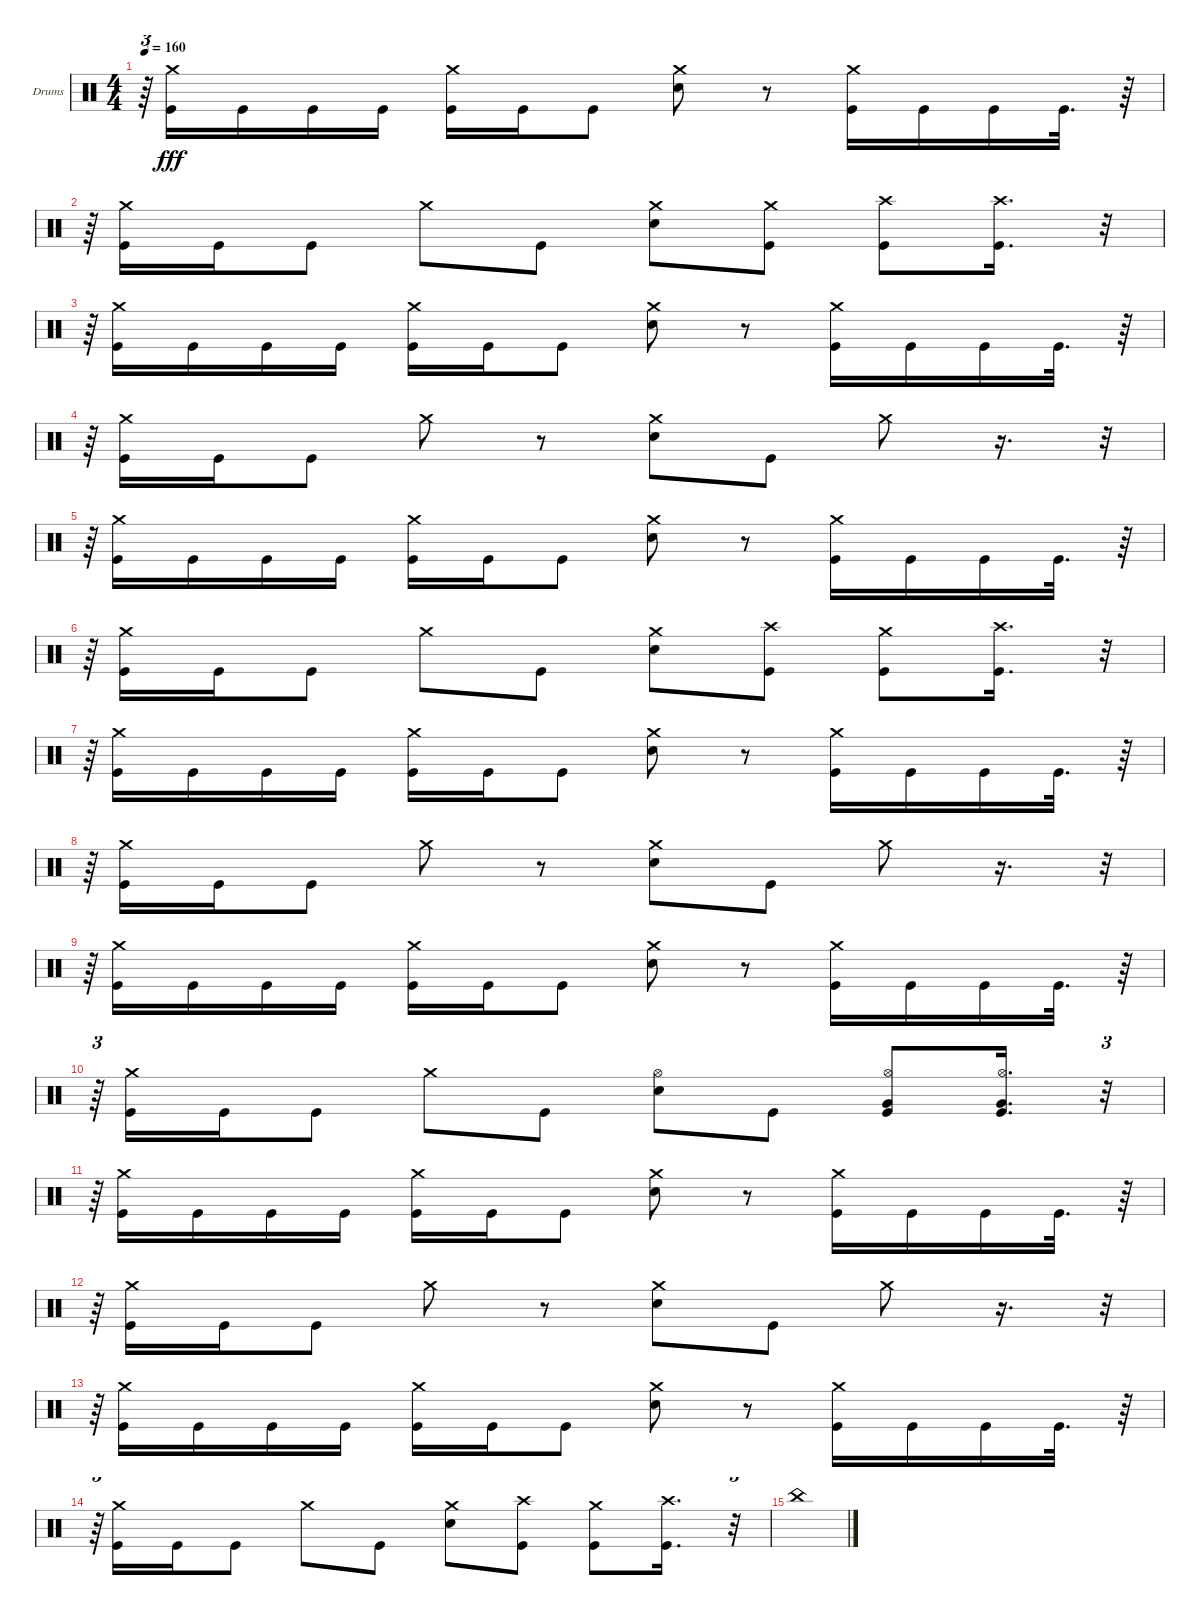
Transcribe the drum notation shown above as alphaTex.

\bracketExtendMode groupsimilarinstruments
\firstSystemTrackNameOrientation horizontal
\otherSystemsTrackNameOrientation horizontal
\track ("Drums" "Drums") {instrument percussion}
\staff {score}
\articulation defaults
\ts (4 4)
\tempo 160
\clef neutral
\ks c
r.64{tu (3 2) dy fff} ("Crash medium (hit)" "Kick (hit)").16 "Kick (hit)".16 "Kick (hit)".16 "Kick (hit)".16 ("Crash medium (hit)" "Kick (hit)").16 "Kick (hit)".16 "Kick (hit)".8 ("Crash medium (hit)" "Snare (hit) 2").8 r.8 ("Crash medium (hit)" "Kick (hit)").16 "Kick (hit)".16 "Kick (hit)".16 "Kick (hit)".32{d} r.64 |
r.64{tu (3 2)} ("Crash medium (hit)" "Kick (hit)").16 "Kick (hit)".16 "Kick (hit)".8 "Crash medium (hit)".8 "Kick (hit)".8 ("Snare (hit) 2" "Crash medium (hit)").8 ("Crash medium (hit)" "Kick (hit)").8 ("Crash high (hit)" "Kick (hit)").8 ("Crash high (hit)" "Kick (hit)").16{d} r.32{tu (3 2)} |
r.64{tu (3 2)} ("Kick (hit)" "Crash medium (hit)").16 "Kick (hit)".16 "Kick (hit)".16 "Kick (hit)".16 ("Crash medium (hit)" "Kick (hit)").16 "Kick (hit)".16 "Kick (hit)".8 ("Crash medium (hit)" "Snare (hit) 2").8 r.8 ("Crash medium (hit)" "Kick (hit)").16 "Kick (hit)".16 "Kick (hit)".16 "Kick (hit)".32{d} r.64 |
r.64{tu (3 2)} ("Crash medium (hit)" "Kick (hit)").16 "Kick (hit)".16 "Kick (hit)".8 "Crash medium (hit)".8 r.8 ("Snare (hit) 2" "Crash medium (hit)").8 "Kick (hit)".8 "Crash medium (hit)".8 r.16{d} r.32{tu (3 2)} |
r.64{tu (3 2)} ("Kick (hit)" "Crash medium (hit)").16 "Kick (hit)".16 "Kick (hit)".16 "Kick (hit)".16 ("Crash medium (hit)" "Kick (hit)").16 "Kick (hit)".16 "Kick (hit)".8 ("Snare (hit) 2" "Crash medium (hit)").8 r.8 ("Kick (hit)" "Crash medium (hit)").16 "Kick (hit)".16 "Kick (hit)".16 "Kick (hit)".32{d} r.64 |
r.64{tu (3 2)} ("Crash medium (hit)" "Kick (hit)").16 "Kick (hit)".16 "Kick (hit)".8 "Crash medium (hit)".8 "Kick (hit)".8 ("Snare (hit) 2" "Crash medium (hit)").8 ("Crash high (hit)" "Kick (hit)").8 ("Kick (hit)" "Crash medium (hit)").8 ("Crash high (hit)" "Kick (hit)").16{d} r.32{tu (3 2)} |
r.64{tu (3 2)} ("Kick (hit)" "Crash medium (hit)").16 "Kick (hit)".16 "Kick (hit)".16 "Kick (hit)".16 ("Kick (hit)" "Crash medium (hit)").16 "Kick (hit)".16 "Kick (hit)".8 ("Snare (hit) 2" "Crash medium (hit)").8 r.8 ("Kick (hit)" "Crash medium (hit)").16 "Kick (hit)".16 "Kick (hit)".16 "Kick (hit)".32{d} r.64 |
r.64{tu (3 2)} ("Kick (hit)" "Crash medium (hit)").16 "Kick (hit)".16 "Kick (hit)".8 "Crash medium (hit)".8 r.8 ("Snare (hit) 2" "Crash medium (hit)").8 "Kick (hit)".8 "Crash medium (hit)".8 r.16{d} r.32{tu (3 2)} |
r.64{tu (3 2)} ("Kick (hit)" "Crash medium (hit)").16 "Kick (hit)".16 "Kick (hit)".16 "Kick (hit)".16 ("Kick (hit)" "Crash medium (hit)").16 "Kick (hit)".16 "Kick (hit)".8 ("Snare (hit) 2" "Crash medium (hit)").8 r.8 ("Kick (hit)" "Crash medium (hit)").16 "Kick (hit)".16 "Kick (hit)".16 "Kick (hit)".32{d} r.64 |
r.64{tu (3 2)} ("Kick (hit)" "Crash medium (hit)").16 "Kick (hit)".16 "Kick (hit)".8 "Crash medium (hit)".8 "Kick (hit)".8 ("Snare (hit) 2" "Hi-Hat (open)").8 "Kick (hit)".8 ("Kick (hit)" "Very Low Tom (hit)" "Hi-Hat (open)").8 ("Kick (hit)" "Very Low Tom (hit)" "Hi-Hat (open)").16{d} r.32{tu (3 2)} |
r.64{tu (3 2)} ("Kick (hit)" "Crash medium (hit)").16 "Kick (hit)".16 "Kick (hit)".16 "Kick (hit)".16 ("Kick (hit)" "Crash medium (hit)").16 "Kick (hit)".16 "Kick (hit)".8 ("Snare (hit) 2" "Crash medium (hit)").8 r.8 ("Kick (hit)" "Crash medium (hit)").16 "Kick (hit)".16 "Kick (hit)".16 "Kick (hit)".32{d} r.64 |
r.64{tu (3 2)} ("Kick (hit)" "Crash medium (hit)").16 "Kick (hit)".16 "Kick (hit)".8 "Crash medium (hit)".8 r.8 ("Snare (hit) 2" "Crash medium (hit)").8 "Kick (hit)".8 "Crash medium (hit)".8 r.16{d} r.32{tu (3 2)} |
r.64{tu (3 2)} ("Kick (hit)" "Crash medium (hit)").16 "Kick (hit)".16 "Kick (hit)".16 "Kick (hit)".16 ("Kick (hit)" "Crash medium (hit)").16 "Kick (hit)".16 "Kick (hit)".8 ("Snare (hit) 2" "Crash medium (hit)").8 r.8 ("Kick (hit)" "Crash medium (hit)").16 "Kick (hit)".16 "Kick (hit)".16 "Kick (hit)".32{d} r.64 |
r.64{tu (3 2)} ("Kick (hit)" "Crash medium (hit)").16 "Kick (hit)".16 "Kick (hit)".8 "Crash medium (hit)".8 "Kick (hit)".8 ("Snare (hit) 2" "Crash medium (hit)").8 ("Kick (hit)" "Crash high (hit)").8 ("Kick (hit)" "Crash medium (hit)").8 ("Kick (hit)" "Crash high (hit)").16{d} r.32{tu (3 2)} |
"China (hit)".1
